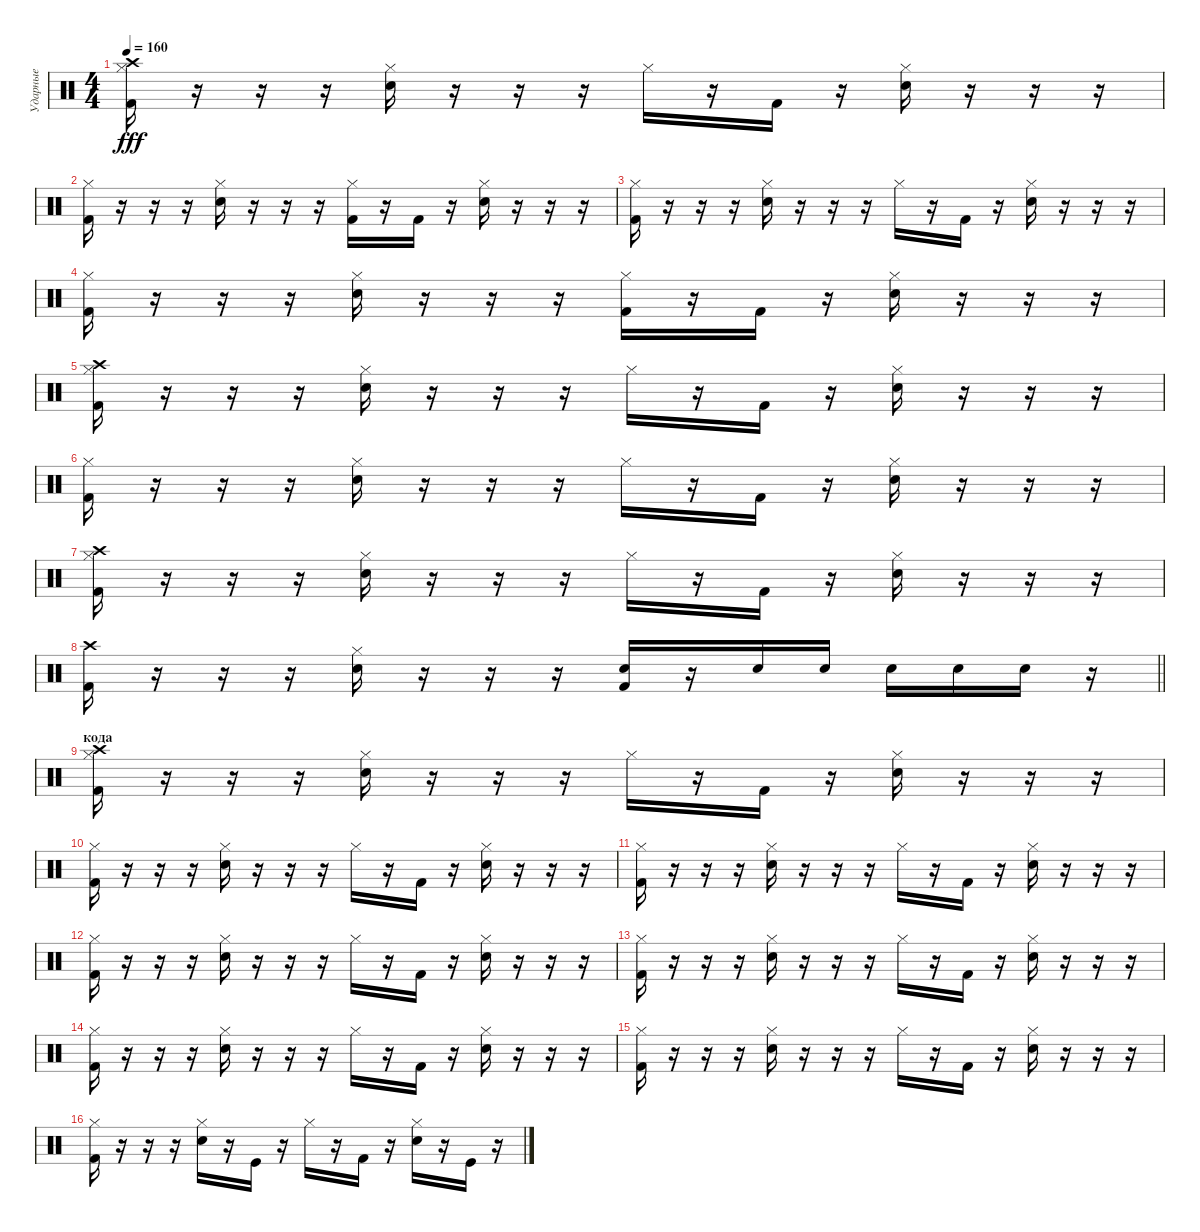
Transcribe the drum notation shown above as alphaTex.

\track ("Ударные" "Ударные") {instrument percussion}
\staff {score}
\articulation defaults
\ts (4 4)
\tempo 160
\clef neutral
\ks c
("Kick (hit) 2" "Hi-Hat (closed)" "Crash high (hit)").16{dy fff} r.16 r.16 r.16 ("Snare (hit) 2" "Hi-Hat (closed)").16 r.16 r.16 r.16 "Hi-Hat (closed)".16 r.16 "Kick (hit) 2".16 r.16 ("Snare (hit) 2" "Hi-Hat (closed)").16 r.16 r.16 r.16 |
("Kick (hit) 2" "Hi-Hat (closed)").16 r.16 r.16 r.16 ("Snare (hit) 2" "Hi-Hat (closed)").16 r.16 r.16 r.16 ("Kick (hit) 2" "Hi-Hat (closed)").16 r.16 "Kick (hit) 2".16 r.16 ("Snare (hit) 2" "Hi-Hat (closed)").16 r.16 r.16 r.16 |
("Kick (hit) 2" "Hi-Hat (closed)").16 r.16 r.16 r.16 ("Snare (hit) 2" "Hi-Hat (closed)").16 r.16 r.16 r.16 "Hi-Hat (closed)".16 r.16 "Kick (hit) 2".16 r.16 ("Snare (hit) 2" "Hi-Hat (closed)").16 r.16 r.16 r.16 |
("Kick (hit) 2" "Hi-Hat (closed)").16 r.16 r.16 r.16 ("Snare (hit) 2" "Hi-Hat (closed)").16 r.16 r.16 r.16 ("Kick (hit) 2" "Hi-Hat (closed)").16 r.16 "Kick (hit) 2".16 r.16 ("Snare (hit) 2" "Hi-Hat (closed)").16 r.16 r.16 r.16 |
("Kick (hit) 2" "Hi-Hat (closed)" "Crash high (hit)").16 r.16 r.16 r.16 ("Snare (hit) 2" "Hi-Hat (closed)").16 r.16 r.16 r.16 "Hi-Hat (closed)".16 r.16 "Kick (hit) 2".16 r.16 ("Snare (hit) 2" "Hi-Hat (closed)").16 r.16 r.16 r.16 |
("Kick (hit) 2" "Hi-Hat (closed)").16 r.16 r.16 r.16 ("Snare (hit) 2" "Hi-Hat (closed)").16 r.16 r.16 r.16 "Hi-Hat (closed)".16 r.16 "Kick (hit) 2".16 r.16 ("Snare (hit) 2" "Hi-Hat (closed)").16 r.16 r.16 r.16 |
("Kick (hit) 2" "Hi-Hat (closed)" "Crash high (hit)").16 r.16 r.16 r.16 ("Snare (hit) 2" "Hi-Hat (closed)").16 r.16 r.16 r.16 "Hi-Hat (closed)".16 r.16 "Kick (hit) 2".16 r.16 ("Snare (hit) 2" "Hi-Hat (closed)").16 r.16 r.16 r.16 |
\barLineRight lightlight
("Kick (hit) 2" "Crash high (hit)").16 r.16 r.16 r.16 ("Hi-Hat (closed)" "Snare (hit) 2").16 r.16 r.16 r.16 ("Snare (hit) 2" "Kick (hit) 2").16 r.16 "Snare (hit) 2".16 "Snare (hit) 2".16 "Snare (hit) 2".16 "Snare (hit) 2".16 "Snare (hit) 2".16 r.16 |
\section ("" "кода")
("Kick (hit) 2" "Hi-Hat (closed)" "Crash high (hit)").16 r.16 r.16 r.16 ("Snare (hit) 2" "Hi-Hat (closed)").16 r.16 r.16 r.16 "Hi-Hat (closed)".16 r.16 "Kick (hit) 2".16 r.16 ("Snare (hit) 2" "Hi-Hat (closed)").16 r.16 r.16 r.16 |
("Kick (hit) 2" "Hi-Hat (closed)").16 r.16 r.16 r.16 ("Snare (hit) 2" "Hi-Hat (closed)").16 r.16 r.16 r.16 "Hi-Hat (closed)".16 r.16 "Kick (hit) 2".16 r.16 ("Snare (hit) 2" "Hi-Hat (closed)").16 r.16 r.16 r.16 |
("Kick (hit) 2" "Hi-Hat (closed)").16 r.16 r.16 r.16 ("Snare (hit) 2" "Hi-Hat (closed)").16 r.16 r.16 r.16 "Hi-Hat (closed)".16 r.16 "Kick (hit) 2".16 r.16 ("Snare (hit) 2" "Hi-Hat (closed)").16 r.16 r.16 r.16 |
("Kick (hit) 2" "Hi-Hat (closed)").16 r.16 r.16 r.16 ("Snare (hit) 2" "Hi-Hat (closed)").16 r.16 r.16 r.16 "Hi-Hat (closed)".16 r.16 "Kick (hit) 2".16 r.16 ("Snare (hit) 2" "Hi-Hat (closed)").16 r.16 r.16 r.16 |
("Kick (hit) 2" "Hi-Hat (closed)").16 r.16 r.16 r.16 ("Snare (hit) 2" "Hi-Hat (closed)").16 r.16 r.16 r.16 "Hi-Hat (closed)".16 r.16 "Kick (hit) 2".16 r.16 ("Snare (hit) 2" "Hi-Hat (closed)").16 r.16 r.16 r.16 |
("Kick (hit) 2" "Hi-Hat (closed)").16 r.16 r.16 r.16 ("Snare (hit) 2" "Hi-Hat (closed)").16 r.16 r.16 r.16 "Hi-Hat (closed)".16 r.16 "Kick (hit) 2".16 r.16 ("Snare (hit) 2" "Hi-Hat (closed)").16 r.16 r.16 r.16 |
("Kick (hit) 2" "Hi-Hat (closed)").16 r.16 r.16 r.16 ("Snare (hit) 2" "Hi-Hat (closed)").16 r.16 r.16 r.16 "Hi-Hat (closed)".16 r.16 "Kick (hit) 2".16 r.16 ("Snare (hit) 2" "Hi-Hat (closed)").16 r.16 r.16 r.16 |
("Kick (hit) 2" "Hi-Hat (closed)").16 r.16 r.16 r.16 ("Snare (hit) 2" "Hi-Hat (closed)").16 r.16 "Kick (hit)".16 r.16 "Hi-Hat (closed)".16 r.16 "Kick (hit) 2".16 r.16 ("Snare (hit) 2" "Hi-Hat (closed)").16 r.16 "Kick (hit)".16 r.16
